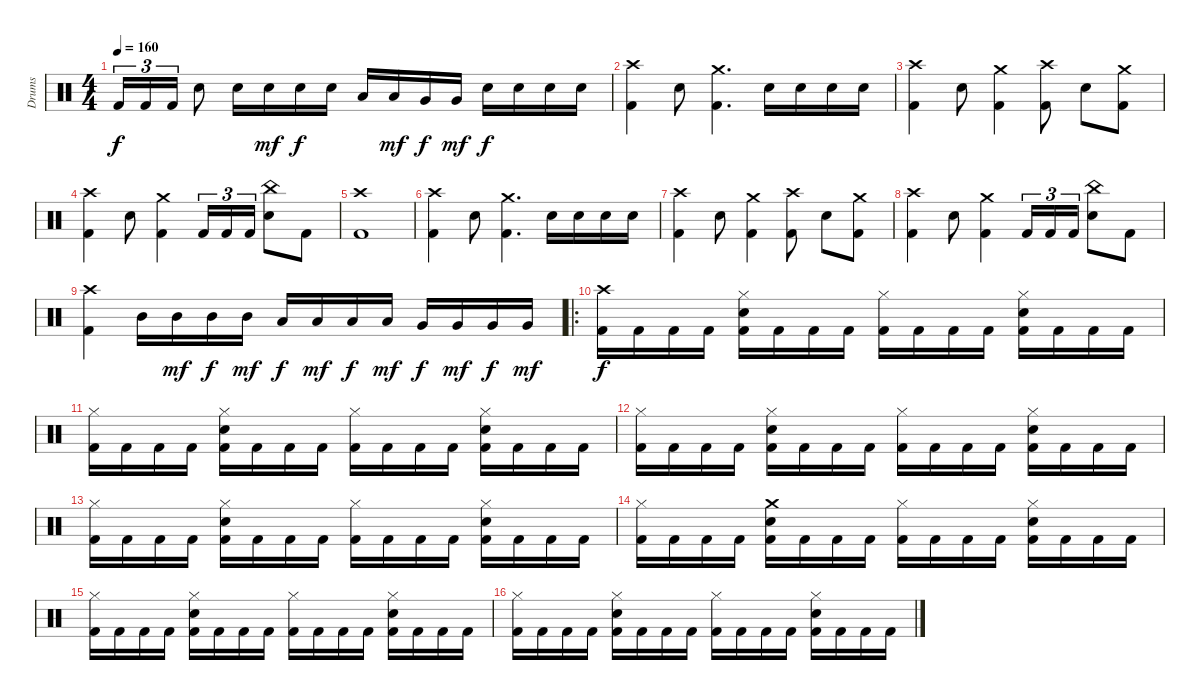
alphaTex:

\track ("Drums" "Drums") {instrument percussion}
\staff {score}
\articulation defaults
\ts (4 4)
\tempo 160
\clef neutral
\ks c "Kick (hit) 2".16{tu (3 2) dy f} "Kick (hit) 2".16{tu (3 2)} "Kick (hit) 2".16{tu (3 2)} "Electric Snare (hit)".8 "Electric Snare (hit)".16 "Electric Snare (hit)".16{dy mf} "Electric Snare (hit)".16{dy f} "Electric Snare (hit)".16 "Low Tom (hit)".16 "Low Tom (hit)".16{dy mf} "Very Low Tom (hit)".16{dy f} "Very Low Tom (hit)".16{dy mf} "Electric Snare (hit)".16{dy f} "Electric Snare (hit)".16 "Electric Snare (hit)".16 "Electric Snare (hit)".16
|
("Kick (hit) 2" "Crash high (hit)").4 "Electric Snare (hit)".8 ("Kick (hit) 2" "Crash medium (hit)").4{d} "Electric Snare (hit)".16 "Electric Snare (hit)".16 "Electric Snare (hit)".16 "Electric Snare (hit)".16 |
("Kick (hit) 2" "Crash high (hit)").4 "Electric Snare (hit)".8 ("Kick (hit) 2" "Crash medium (hit)").4 ("Kick (hit) 2" "Crash high (hit)").8 "Electric Snare (hit)".8 ("Kick (hit) 2" "Crash medium (hit)").8 |
("Kick (hit) 2" "Crash high (hit)").4 "Electric Snare (hit)".8 ("Kick (hit) 2" "Crash medium (hit)").4 "Kick (hit) 2".16{tu (3 2)} "Kick (hit) 2".16{tu (3 2)} "Kick (hit) 2".16{tu (3 2)} ("China (hit)" "Electric Snare (hit)").8 "Kick (hit) 2".8 |
("Kick (hit) 2" "Crash high (hit)").1 |
("Kick (hit) 2" "Crash high (hit)").4 "Electric Snare (hit)".8 ("Kick (hit) 2" "Crash medium (hit)").4{d} "Electric Snare (hit)".16 "Electric Snare (hit)".16 "Electric Snare (hit)".16 "Electric Snare (hit)".16 |
("Kick (hit) 2" "Crash high (hit)").4 "Electric Snare (hit)".8 ("Kick (hit) 2" "Crash medium (hit)").4 ("Kick (hit) 2" "Crash high (hit)").8 "Electric Snare (hit)".8 ("Kick (hit) 2" "Crash medium (hit)").8 |
("Kick (hit) 2" "Crash high (hit)").4 "Electric Snare (hit)".8 ("Kick (hit) 2" "Crash medium (hit)").4 "Kick (hit) 2".16{tu (3 2)} "Kick (hit) 2".16{tu (3 2)} "Kick (hit) 2".16{tu (3 2)} ("China (hit)" "Electric Snare (hit)").8 "Kick (hit) 2".8 |
("Kick (hit) 2" "Crash high (hit)").4 "Mid Tom (hit)".16 "Mid Tom (hit)".16{dy mf} "Mid Tom (hit)".16{dy f} "Mid Tom (hit)".16{dy mf} "Low Tom (hit)".16{dy f} "Low Tom (hit)".16{dy mf} "Low Tom (hit)".16{dy f} "Low Tom (hit)".16{dy mf} "Very Low Tom (hit)".16{dy f} "Very Low Tom (hit)".16{dy mf} "Very Low Tom (hit)".16{dy f} "Very Low Tom (hit)".16{dy mf} |
\ro
("Kick (hit) 2" "Crash high (hit)").16{dy f} "Kick (hit) 2".16 "Kick (hit) 2".16 "Kick (hit) 2".16 ("Kick (hit) 2" "Hi-Hat (closed)" "Electric Snare (hit)").16 "Kick (hit) 2".16 "Kick (hit) 2".16 "Kick (hit) 2".16 ("Kick (hit) 2" "Hi-Hat (closed)").16 "Kick (hit) 2".16 "Kick (hit) 2".16 "Kick (hit) 2".16 ("Kick (hit) 2" "Hi-Hat (closed)" "Electric Snare (hit)").16 "Kick (hit) 2".16 "Kick (hit) 2".16 "Kick (hit) 2".16 |
("Kick (hit) 2" "Hi-Hat (closed)").16 "Kick (hit) 2".16 "Kick (hit) 2".16 "Kick (hit) 2".16 ("Kick (hit) 2" "Hi-Hat (closed)" "Electric Snare (hit)").16 "Kick (hit) 2".16 "Kick (hit) 2".16 "Kick (hit) 2".16 ("Kick (hit) 2" "Hi-Hat (closed)").16 "Kick (hit) 2".16 "Kick (hit) 2".16 "Kick (hit) 2".16 ("Kick (hit) 2" "Hi-Hat (closed)" "Electric Snare (hit)").16 "Kick (hit) 2".16 "Kick (hit) 2".16 "Kick (hit) 2".16 |
("Kick (hit) 2" "Hi-Hat (closed)").16 "Kick (hit) 2".16 "Kick (hit) 2".16 "Kick (hit) 2".16 ("Kick (hit) 2" "Hi-Hat (closed)" "Electric Snare (hit)").16 "Kick (hit) 2".16 "Kick (hit) 2".16 "Kick (hit) 2".16 ("Kick (hit) 2" "Hi-Hat (closed)").16 "Kick (hit) 2".16 "Kick (hit) 2".16 "Kick (hit) 2".16 ("Kick (hit) 2" "Hi-Hat (closed)" "Electric Snare (hit)").16 "Kick (hit) 2".16 "Kick (hit) 2".16 "Kick (hit) 2".16 |
("Kick (hit) 2" "Hi-Hat (closed)").16 "Kick (hit) 2".16 "Kick (hit) 2".16 "Kick (hit) 2".16 ("Kick (hit) 2" "Hi-Hat (closed)" "Electric Snare (hit)").16 "Kick (hit) 2".16 "Kick (hit) 2".16 "Kick (hit) 2".16 ("Kick (hit) 2" "Hi-Hat (closed)").16 "Kick (hit) 2".16 "Kick (hit) 2".16 "Kick (hit) 2".16 ("Kick (hit) 2" "Hi-Hat (closed)" "Electric Snare (hit)").16 "Kick (hit) 2".16 "Kick (hit) 2".16 "Kick (hit) 2".16 |
("Kick (hit) 2" "Hi-Hat (closed)").16 "Kick (hit) 2".16 "Kick (hit) 2".16 "Kick (hit) 2".16 ("Kick (hit) 2" "Crash medium (hit)" "Electric Snare (hit)").16 "Kick (hit) 2".16 "Kick (hit) 2".16 "Kick (hit) 2".16 ("Kick (hit) 2" "Hi-Hat (closed)").16 "Kick (hit) 2".16 "Kick (hit) 2".16 "Kick (hit) 2".16 ("Kick (hit) 2" "Hi-Hat (closed)" "Electric Snare (hit)").16 "Kick (hit) 2".16 "Kick (hit) 2".16 "Kick (hit) 2".16 |
("Kick (hit) 2" "Hi-Hat (closed)").16 "Kick (hit) 2".16 "Kick (hit) 2".16 "Kick (hit) 2".16 ("Kick (hit) 2" "Hi-Hat (closed)" "Electric Snare (hit)").16 "Kick (hit) 2".16 "Kick (hit) 2".16 "Kick (hit) 2".16 ("Kick (hit) 2" "Hi-Hat (closed)").16 "Kick (hit) 2".16 "Kick (hit) 2".16 "Kick (hit) 2".16 ("Kick (hit) 2" "Hi-Hat (closed)" "Electric Snare (hit)").16 "Kick (hit) 2".16 "Kick (hit) 2".16 "Kick (hit) 2".16 |
("Kick (hit) 2" "Hi-Hat (closed)").16 "Kick (hit) 2".16 "Kick (hit) 2".16 "Kick (hit) 2".16 ("Kick (hit) 2" "Hi-Hat (closed)" "Electric Snare (hit)").16 "Kick (hit) 2".16 "Kick (hit) 2".16 "Kick (hit) 2".16 ("Kick (hit) 2" "Hi-Hat (closed)").16 "Kick (hit) 2".16 "Kick (hit) 2".16 "Kick (hit) 2".16 ("Kick (hit) 2" "Hi-Hat (closed)" "Electric Snare (hit)").16 "Kick (hit) 2".16 "Kick (hit) 2".16 "Kick (hit) 2".16
